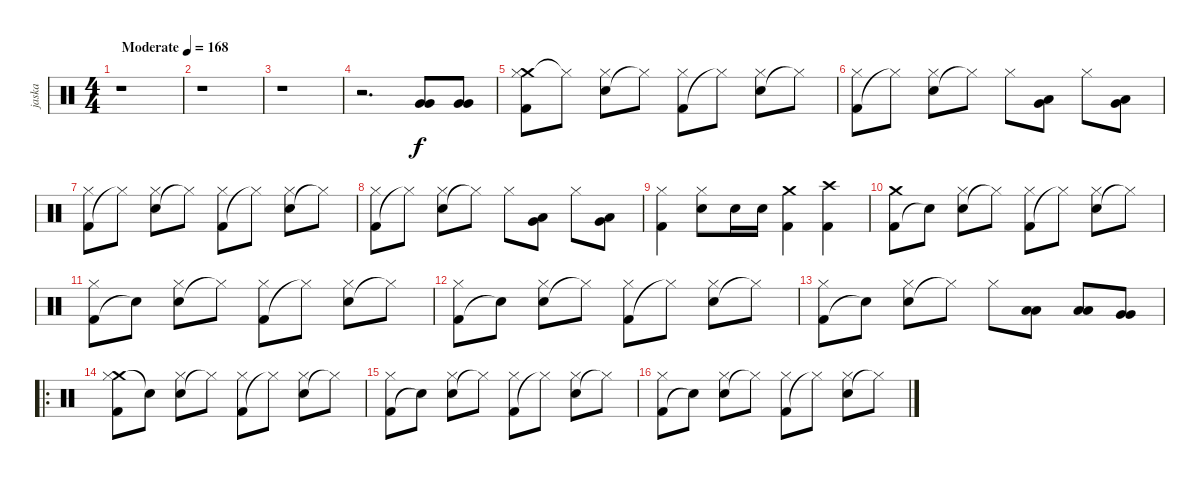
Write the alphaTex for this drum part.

\track ("jaska" "jaska") {instrument percussion}
\staff
\articulation defaults
\ts (4 4)
\tempo (168 "Moderate")
\clef neutral
\ks c
r.1{dy f} |
r.1 |
r.1 |
r.2{d} ("Very Low Tom (hit)" "Very Low Tom (hit)").8 ("Very Low Tom (hit)" "Very Low Tom (hit)").8 |
("Crash medium (hit)" "Kick (hit) 2" "Hi-Hat (closed)").8 "Hi-Hat (closed)"{t}.8 ("Electric Snare (hit)" "Hi-Hat (closed)").8 "Hi-Hat (closed)"{t}.8 ("Kick (hit) 2" "Hi-Hat (closed)").8 "Hi-Hat (closed)"{t}.8 ("Electric Snare (hit)" "Hi-Hat (closed)").8 "Hi-Hat (closed)"{t}.8 |
("Kick (hit) 2" "Hi-Hat (closed)").8 "Hi-Hat (closed)"{t}.8 ("Electric Snare (hit)" "Hi-Hat (closed)").8 "Hi-Hat (closed)"{t}.8 "Hi-Hat (closed)".8 ("Low Tom (hit)" "Very Low Tom (hit)").8 "Hi-Hat (closed)".8 ("Low Tom (hit)" "Very Low Tom (hit)").8 |
("Kick (hit) 2" "Hi-Hat (closed)").8 "Hi-Hat (closed)"{t}.8 ("Electric Snare (hit)" "Hi-Hat (closed)").8 "Hi-Hat (closed)"{t}.8 ("Kick (hit) 2" "Hi-Hat (closed)").8 "Hi-Hat (closed)"{t}.8 ("Electric Snare (hit)" "Hi-Hat (closed)").8 "Hi-Hat (closed)"{t}.8 |
("Kick (hit) 2" "Hi-Hat (closed)").8 "Hi-Hat (closed)"{t}.8 ("Electric Snare (hit)" "Hi-Hat (closed)").8 "Hi-Hat (closed)"{t}.8 "Hi-Hat (closed)".8 ("Low Tom (hit)" "Very Low Tom (hit)").8 "Hi-Hat (closed)".8 ("Low Tom (hit)" "Very Low Tom (hit)").8 |
("Kick (hit) 2" "Hi-Hat (closed)").4 ("Electric Snare (hit)" "Hi-Hat (closed)").8 "Electric Snare (hit)".16 "Electric Snare (hit)".16 ("Crash medium (hit)" "Kick (hit) 2").4 ("Crash high (hit)" "Kick (hit) 2").4 |
("Kick (hit) 2" "Crash medium (hit)").8 "Snare (hit)"{t}.8 ("Electric Snare (hit)" "Hi-Hat (closed)").8 "Hi-Hat (closed)"{t}.8 ("Kick (hit) 2" "Hi-Hat (closed)").8 "Hi-Hat (closed)"{t}.8 ("Electric Snare (hit)" "Hi-Hat (closed)").8 "Hi-Hat (closed)"{t}.8 |
("Kick (hit) 2" "Hi-Hat (closed)").8 "Snare (hit)"{t}.8 ("Electric Snare (hit)" "Hi-Hat (closed)").8 "Hi-Hat (closed)"{t}.8 ("Kick (hit) 2" "Hi-Hat (closed)").8 "Hi-Hat (closed)"{t}.8 ("Electric Snare (hit)" "Hi-Hat (closed)").8 "Hi-Hat (closed)"{t}.8 |
("Kick (hit) 2" "Hi-Hat (closed)").8 "Snare (hit)"{t}.8 ("Electric Snare (hit)" "Hi-Hat (closed)").8 "Hi-Hat (closed)"{t}.8 ("Kick (hit) 2" "Hi-Hat (closed)").8 "Hi-Hat (closed)"{t}.8 ("Electric Snare (hit)" "Hi-Hat (closed)").8 "Hi-Hat (closed)"{t}.8 |
("Kick (hit) 2" "Hi-Hat (closed)").8 "Snare (hit)"{t}.8 ("Electric Snare (hit)" "Hi-Hat (closed)").8 "Hi-Hat (closed)"{t}.8 "Hi-Hat (closed)".8 ("Low Tom (hit)" "Low Tom (hit)").8 ("Low Tom (hit)" "Low Tom (hit)").8 ("Very Low Tom (hit)" "Very Low Tom (hit)").8 |
\ro
("Crash medium (hit)" "Kick (hit) 2" "Hi-Hat (closed)").8 "Snare (hit)"{t}.8 ("Electric Snare (hit)" "Hi-Hat (closed)").8 "Hi-Hat (closed)"{t}.8 ("Kick (hit) 2" "Hi-Hat (closed)").8 "Hi-Hat (closed)"{t}.8 ("Electric Snare (hit)" "Hi-Hat (closed)").8 "Hi-Hat (closed)"{t}.8 |
("Kick (hit) 2" "Hi-Hat (closed)").8 "Snare (hit)"{t}.8 ("Electric Snare (hit)" "Hi-Hat (closed)").8 "Hi-Hat (closed)"{t}.8 ("Kick (hit) 2" "Hi-Hat (closed)").8 "Hi-Hat (closed)"{t}.8 ("Electric Snare (hit)" "Hi-Hat (closed)").8 "Hi-Hat (closed)"{t}.8 |
("Kick (hit) 2" "Hi-Hat (closed)").8 "Snare (hit)"{t}.8 ("Electric Snare (hit)" "Hi-Hat (closed)").8 "Hi-Hat (closed)"{t}.8 ("Kick (hit) 2" "Hi-Hat (closed)").8 "Hi-Hat (closed)"{t}.8 ("Electric Snare (hit)" "Hi-Hat (closed)").8 "Hi-Hat (closed)"{t}.8
